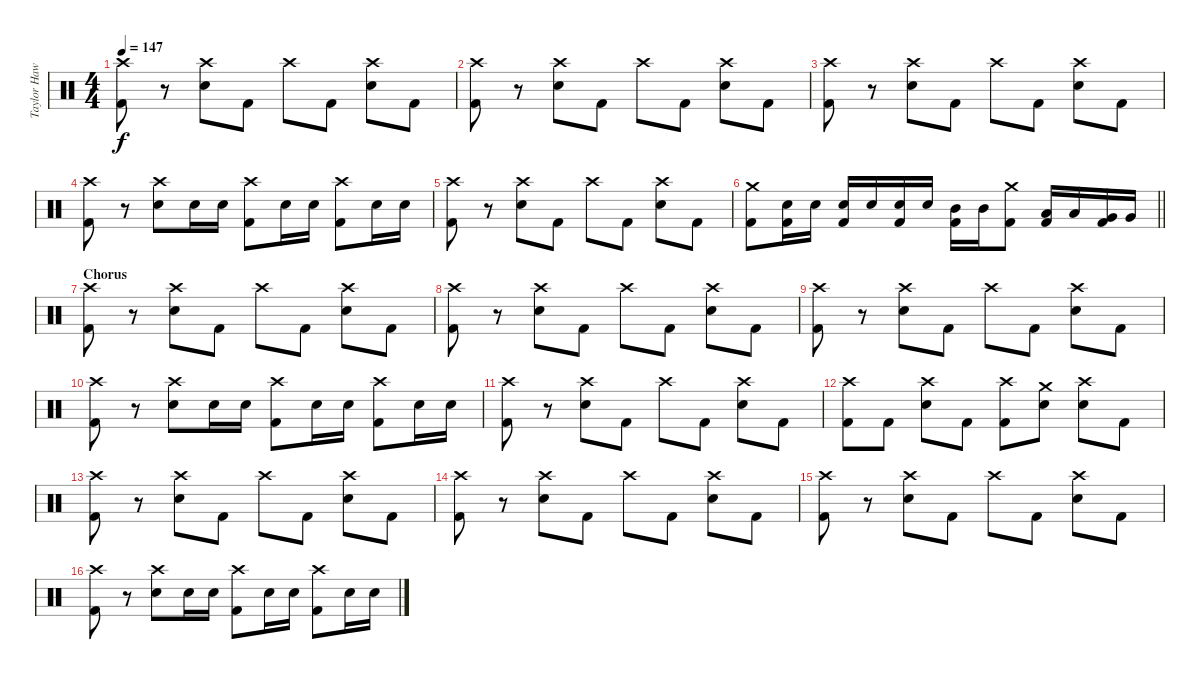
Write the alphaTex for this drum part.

\track ("Taylor Hawkins - Drums" "Taylor Haw") {instrument percussion}
\staff {score}
\articulation defaults
\ts (4 4)
\tempo 147
\clef neutral
\ks c
("Crash high (hit)" "Kick (hit) 2").8{dy f} r.8 ("Crash high (hit)" "Snare (hit) 2").8 "Kick (hit) 2".8 "Crash high (hit)".8 "Kick (hit) 2".8 ("Crash high (hit)" "Snare (hit) 2").8 "Kick (hit) 2".8 |
("Crash high (hit)" "Kick (hit) 2").8 r.8 ("Crash high (hit)" "Snare (hit) 2").8 "Kick (hit) 2".8 "Crash high (hit)".8 "Kick (hit) 2".8 ("Crash high (hit)" "Snare (hit) 2").8 "Kick (hit) 2".8 |
("Crash high (hit)" "Kick (hit) 2").8 r.8 ("Crash high (hit)" "Snare (hit) 2").8 "Kick (hit) 2".8 "Crash high (hit)".8 "Kick (hit) 2".8 ("Crash high (hit)" "Snare (hit) 2").8 "Kick (hit) 2".8 |
("Crash high (hit)" "Kick (hit) 2").8 r.8 ("Crash high (hit)" "Snare (hit) 2").8 "Snare (hit) 2".16 "Snare (hit) 2".16 ("Crash high (hit)" "Kick (hit) 2").8 "Snare (hit) 2".16 "Snare (hit) 2".16 ("Crash high (hit)" "Kick (hit) 2").8 "Snare (hit) 2".16 "Snare (hit) 2".16 |
("Crash high (hit)" "Kick (hit) 2").8 r.8 ("Crash high (hit)" "Snare (hit) 2").8 "Kick (hit) 2".8 "Crash high (hit)".8 "Kick (hit) 2".8 ("Crash high (hit)" "Snare (hit) 2").8 "Kick (hit) 2".8 |
\barLineRight lightlight
("Crash medium (hit)" "Kick (hit) 2").8 ("Snare (hit) 2" "Kick (hit) 2").16 "Snare (hit) 2".16 ("Snare (hit) 2" "Kick (hit) 2").16 "Snare (hit) 2".16 ("Snare (hit) 2" "Kick (hit) 2").16 "Snare (hit) 2".16 ("Mid Tom (hit)" "Kick (hit) 2").16 "Mid Tom (hit)".16 ("Crash medium (hit)" "Kick (hit) 2").8 ("Low Tom (hit)" "Kick (hit) 2").16 "Low Tom (hit)".16 ("Very Low Tom (hit)" "Kick (hit) 2").16 "Very Low Tom (hit)".16 |
\section ("" "Chorus")
("Crash high (hit)" "Kick (hit) 2").8 r.8 ("Crash high (hit)" "Snare (hit) 2").8 "Kick (hit) 2".8 "Crash high (hit)".8 "Kick (hit) 2".8 ("Crash high (hit)" "Snare (hit) 2").8 "Kick (hit) 2".8 |
("Crash high (hit)" "Kick (hit) 2").8 r.8 ("Crash high (hit)" "Snare (hit) 2").8 "Kick (hit) 2".8 "Crash high (hit)".8 "Kick (hit) 2".8 ("Crash high (hit)" "Snare (hit) 2").8 "Kick (hit) 2".8 |
("Crash high (hit)" "Kick (hit) 2").8 r.8 ("Crash high (hit)" "Snare (hit) 2").8 "Kick (hit) 2".8 "Crash high (hit)".8 "Kick (hit) 2".8 ("Crash high (hit)" "Snare (hit) 2").8 "Kick (hit) 2".8 |
("Crash high (hit)" "Kick (hit) 2").8 r.8 ("Crash high (hit)" "Snare (hit) 2").8 "Snare (hit) 2".16 "Snare (hit) 2".16 ("Crash high (hit)" "Kick (hit) 2").8 "Snare (hit) 2".16 "Snare (hit) 2".16 ("Crash high (hit)" "Kick (hit) 2").8 "Snare (hit) 2".16 "Snare (hit) 2".16 |
("Crash high (hit)" "Kick (hit) 2").8 r.8 ("Crash high (hit)" "Snare (hit) 2").8 "Kick (hit) 2".8 "Crash high (hit)".8 "Kick (hit) 2".8 ("Crash high (hit)" "Snare (hit) 2").8 "Kick (hit) 2".8 |
("Crash high (hit)" "Kick (hit) 2").8 "Kick (hit) 2".8 ("Crash high (hit)" "Snare (hit) 2").8 "Kick (hit) 2".8 ("Crash high (hit)" "Kick (hit) 2").8 ("Crash medium (hit)" "Snare (hit) 2").8 ("Crash high (hit)" "Snare (hit) 2").8 "Kick (hit) 2".8 |
("Crash high (hit)" "Kick (hit) 2").8 r.8 ("Crash high (hit)" "Snare (hit) 2").8 "Kick (hit) 2".8 "Crash high (hit)".8 "Kick (hit) 2".8 ("Crash high (hit)" "Snare (hit) 2").8 "Kick (hit) 2".8 |
("Crash high (hit)" "Kick (hit) 2").8 r.8 ("Crash high (hit)" "Snare (hit) 2").8 "Kick (hit) 2".8 "Crash high (hit)".8 "Kick (hit) 2".8 ("Crash high (hit)" "Snare (hit) 2").8 "Kick (hit) 2".8 |
("Crash high (hit)" "Kick (hit) 2").8 r.8 ("Crash high (hit)" "Snare (hit) 2").8 "Kick (hit) 2".8 "Crash high (hit)".8 "Kick (hit) 2".8 ("Crash high (hit)" "Snare (hit) 2").8 "Kick (hit) 2".8 |
("Crash high (hit)" "Kick (hit) 2").8 r.8 ("Crash high (hit)" "Snare (hit) 2").8 "Snare (hit) 2".16 "Snare (hit) 2".16 ("Crash high (hit)" "Kick (hit) 2").8 "Snare (hit) 2".16 "Snare (hit) 2".16 ("Crash high (hit)" "Kick (hit) 2").8 "Snare (hit) 2".16 "Snare (hit) 2".16
